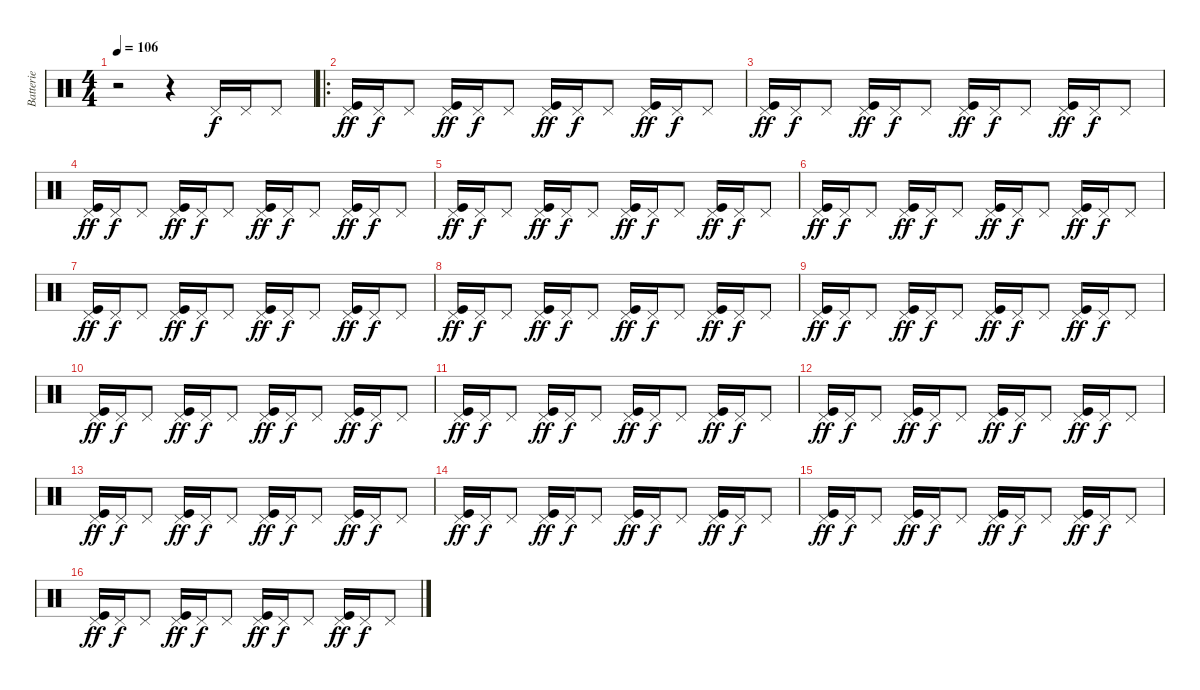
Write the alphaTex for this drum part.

\track ("Batterie" "Batterie") {instrument percussion}
\staff {score}
\articulation defaults
\ts (4 4)
\tempo 106
\clef neutral
\ks c
r.2{dy f} r.4 "Pedal Hi-Hat (hit)".16 "Pedal Hi-Hat (hit)".16 "Pedal Hi-Hat (hit)".8 |
\ro
("Pedal Hi-Hat (hit)" "Kick (hit)").16{dy ff} "Pedal Hi-Hat (hit)".16{dy f} "Pedal Hi-Hat (hit)".8 ("Pedal Hi-Hat (hit)" "Kick (hit)").16{dy ff} "Pedal Hi-Hat (hit)".16{dy f} "Pedal Hi-Hat (hit)".8 ("Pedal Hi-Hat (hit)" "Kick (hit)").16{dy ff} "Pedal Hi-Hat (hit)".16{dy f} "Pedal Hi-Hat (hit)".8 ("Pedal Hi-Hat (hit)" "Kick (hit)").16{dy ff} "Pedal Hi-Hat (hit)".16{dy f} "Pedal Hi-Hat (hit)".8 |
("Pedal Hi-Hat (hit)" "Kick (hit)").16{dy ff} "Pedal Hi-Hat (hit)".16{dy f} "Pedal Hi-Hat (hit)".8 ("Pedal Hi-Hat (hit)" "Kick (hit)").16{dy ff} "Pedal Hi-Hat (hit)".16{dy f} "Pedal Hi-Hat (hit)".8 ("Pedal Hi-Hat (hit)" "Kick (hit)").16{dy ff} "Pedal Hi-Hat (hit)".16{dy f} "Pedal Hi-Hat (hit)".8 ("Pedal Hi-Hat (hit)" "Kick (hit)").16{dy ff} "Pedal Hi-Hat (hit)".16{dy f} "Pedal Hi-Hat (hit)".8 |
("Pedal Hi-Hat (hit)" "Kick (hit)").16{dy ff} "Pedal Hi-Hat (hit)".16{dy f} "Pedal Hi-Hat (hit)".8 ("Pedal Hi-Hat (hit)" "Kick (hit)").16{dy ff} "Pedal Hi-Hat (hit)".16{dy f} "Pedal Hi-Hat (hit)".8 ("Pedal Hi-Hat (hit)" "Kick (hit)").16{dy ff} "Pedal Hi-Hat (hit)".16{dy f} "Pedal Hi-Hat (hit)".8 ("Pedal Hi-Hat (hit)" "Kick (hit)").16{dy ff} "Pedal Hi-Hat (hit)".16{dy f} "Pedal Hi-Hat (hit)".8 |
("Pedal Hi-Hat (hit)" "Kick (hit)").16{dy ff} "Pedal Hi-Hat (hit)".16{dy f} "Pedal Hi-Hat (hit)".8 ("Pedal Hi-Hat (hit)" "Kick (hit)").16{dy ff} "Pedal Hi-Hat (hit)".16{dy f} "Pedal Hi-Hat (hit)".8 ("Pedal Hi-Hat (hit)" "Kick (hit)").16{dy ff} "Pedal Hi-Hat (hit)".16{dy f} "Pedal Hi-Hat (hit)".8 ("Pedal Hi-Hat (hit)" "Kick (hit)").16{dy ff} "Pedal Hi-Hat (hit)".16{dy f} "Pedal Hi-Hat (hit)".8 |
("Pedal Hi-Hat (hit)" "Kick (hit)").16{dy ff} "Pedal Hi-Hat (hit)".16{dy f} "Pedal Hi-Hat (hit)".8 ("Pedal Hi-Hat (hit)" "Kick (hit)").16{dy ff} "Pedal Hi-Hat (hit)".16{dy f} "Pedal Hi-Hat (hit)".8 ("Pedal Hi-Hat (hit)" "Kick (hit)").16{dy ff} "Pedal Hi-Hat (hit)".16{dy f} "Pedal Hi-Hat (hit)".8 ("Pedal Hi-Hat (hit)" "Kick (hit)").16{dy ff} "Pedal Hi-Hat (hit)".16{dy f} "Pedal Hi-Hat (hit)".8 |
("Pedal Hi-Hat (hit)" "Kick (hit)").16{dy ff} "Pedal Hi-Hat (hit)".16{dy f} "Pedal Hi-Hat (hit)".8 ("Pedal Hi-Hat (hit)" "Kick (hit)").16{dy ff} "Pedal Hi-Hat (hit)".16{dy f} "Pedal Hi-Hat (hit)".8 ("Pedal Hi-Hat (hit)" "Kick (hit)").16{dy ff} "Pedal Hi-Hat (hit)".16{dy f} "Pedal Hi-Hat (hit)".8 ("Pedal Hi-Hat (hit)" "Kick (hit)").16{dy ff} "Pedal Hi-Hat (hit)".16{dy f} "Pedal Hi-Hat (hit)".8 |
("Pedal Hi-Hat (hit)" "Kick (hit)").16{dy ff} "Pedal Hi-Hat (hit)".16{dy f} "Pedal Hi-Hat (hit)".8 ("Pedal Hi-Hat (hit)" "Kick (hit)").16{dy ff} "Pedal Hi-Hat (hit)".16{dy f} "Pedal Hi-Hat (hit)".8 ("Pedal Hi-Hat (hit)" "Kick (hit)").16{dy ff} "Pedal Hi-Hat (hit)".16{dy f} "Pedal Hi-Hat (hit)".8 ("Pedal Hi-Hat (hit)" "Kick (hit)").16{dy ff} "Pedal Hi-Hat (hit)".16{dy f} "Pedal Hi-Hat (hit)".8 |
("Pedal Hi-Hat (hit)" "Kick (hit)").16{dy ff} "Pedal Hi-Hat (hit)".16{dy f} "Pedal Hi-Hat (hit)".8 ("Pedal Hi-Hat (hit)" "Kick (hit)").16{dy ff} "Pedal Hi-Hat (hit)".16{dy f} "Pedal Hi-Hat (hit)".8 ("Pedal Hi-Hat (hit)" "Kick (hit)").16{dy ff} "Pedal Hi-Hat (hit)".16{dy f} "Pedal Hi-Hat (hit)".8 ("Pedal Hi-Hat (hit)" "Kick (hit)").16{dy ff} "Pedal Hi-Hat (hit)".16{dy f} "Pedal Hi-Hat (hit)".8 |
("Pedal Hi-Hat (hit)" "Kick (hit)").16{dy ff} "Pedal Hi-Hat (hit)".16{dy f} "Pedal Hi-Hat (hit)".8 ("Pedal Hi-Hat (hit)" "Kick (hit)").16{dy ff} "Pedal Hi-Hat (hit)".16{dy f} "Pedal Hi-Hat (hit)".8 ("Pedal Hi-Hat (hit)" "Kick (hit)").16{dy ff} "Pedal Hi-Hat (hit)".16{dy f} "Pedal Hi-Hat (hit)".8 ("Pedal Hi-Hat (hit)" "Kick (hit)").16{dy ff} "Pedal Hi-Hat (hit)".16{dy f} "Pedal Hi-Hat (hit)".8 |
("Pedal Hi-Hat (hit)" "Kick (hit)").16{dy ff} "Pedal Hi-Hat (hit)".16{dy f} "Pedal Hi-Hat (hit)".8 ("Pedal Hi-Hat (hit)" "Kick (hit)").16{dy ff} "Pedal Hi-Hat (hit)".16{dy f} "Pedal Hi-Hat (hit)".8 ("Pedal Hi-Hat (hit)" "Kick (hit)").16{dy ff} "Pedal Hi-Hat (hit)".16{dy f} "Pedal Hi-Hat (hit)".8 ("Pedal Hi-Hat (hit)" "Kick (hit)").16{dy ff} "Pedal Hi-Hat (hit)".16{dy f} "Pedal Hi-Hat (hit)".8 |
("Pedal Hi-Hat (hit)" "Kick (hit)").16{dy ff} "Pedal Hi-Hat (hit)".16{dy f} "Pedal Hi-Hat (hit)".8 ("Pedal Hi-Hat (hit)" "Kick (hit)").16{dy ff} "Pedal Hi-Hat (hit)".16{dy f} "Pedal Hi-Hat (hit)".8 ("Pedal Hi-Hat (hit)" "Kick (hit)").16{dy ff} "Pedal Hi-Hat (hit)".16{dy f} "Pedal Hi-Hat (hit)".8 ("Pedal Hi-Hat (hit)" "Kick (hit)").16{dy ff} "Pedal Hi-Hat (hit)".16{dy f} "Pedal Hi-Hat (hit)".8 |
("Pedal Hi-Hat (hit)" "Kick (hit)").16{dy ff} "Pedal Hi-Hat (hit)".16{dy f} "Pedal Hi-Hat (hit)".8 ("Pedal Hi-Hat (hit)" "Kick (hit)").16{dy ff} "Pedal Hi-Hat (hit)".16{dy f} "Pedal Hi-Hat (hit)".8 ("Pedal Hi-Hat (hit)" "Kick (hit)").16{dy ff} "Pedal Hi-Hat (hit)".16{dy f} "Pedal Hi-Hat (hit)".8 ("Pedal Hi-Hat (hit)" "Kick (hit)").16{dy ff} "Pedal Hi-Hat (hit)".16{dy f} "Pedal Hi-Hat (hit)".8 |
("Pedal Hi-Hat (hit)" "Kick (hit)").16{dy ff} "Pedal Hi-Hat (hit)".16{dy f} "Pedal Hi-Hat (hit)".8 ("Pedal Hi-Hat (hit)" "Kick (hit)").16{dy ff} "Pedal Hi-Hat (hit)".16{dy f} "Pedal Hi-Hat (hit)".8 ("Pedal Hi-Hat (hit)" "Kick (hit)").16{dy ff} "Pedal Hi-Hat (hit)".16{dy f} "Pedal Hi-Hat (hit)".8 ("Pedal Hi-Hat (hit)" "Kick (hit)").16{dy ff} "Pedal Hi-Hat (hit)".16{dy f} "Pedal Hi-Hat (hit)".8 |
("Pedal Hi-Hat (hit)" "Kick (hit)").16{dy ff} "Pedal Hi-Hat (hit)".16{dy f} "Pedal Hi-Hat (hit)".8 ("Pedal Hi-Hat (hit)" "Kick (hit)").16{dy ff} "Pedal Hi-Hat (hit)".16{dy f} "Pedal Hi-Hat (hit)".8 ("Pedal Hi-Hat (hit)" "Kick (hit)").16{dy ff} "Pedal Hi-Hat (hit)".16{dy f} "Pedal Hi-Hat (hit)".8 ("Pedal Hi-Hat (hit)" "Kick (hit)").16{dy ff} "Pedal Hi-Hat (hit)".16{dy f} "Pedal Hi-Hat (hit)".8 |
("Pedal Hi-Hat (hit)" "Kick (hit)").16{dy ff} "Pedal Hi-Hat (hit)".16{dy f} "Pedal Hi-Hat (hit)".8 ("Pedal Hi-Hat (hit)" "Kick (hit)").16{dy ff} "Pedal Hi-Hat (hit)".16{dy f} "Pedal Hi-Hat (hit)".8 ("Pedal Hi-Hat (hit)" "Kick (hit)").16{dy ff} "Pedal Hi-Hat (hit)".16{dy f} "Pedal Hi-Hat (hit)".8 ("Pedal Hi-Hat (hit)" "Kick (hit)").16{dy ff} "Pedal Hi-Hat (hit)".16{dy f} "Pedal Hi-Hat (hit)".8
